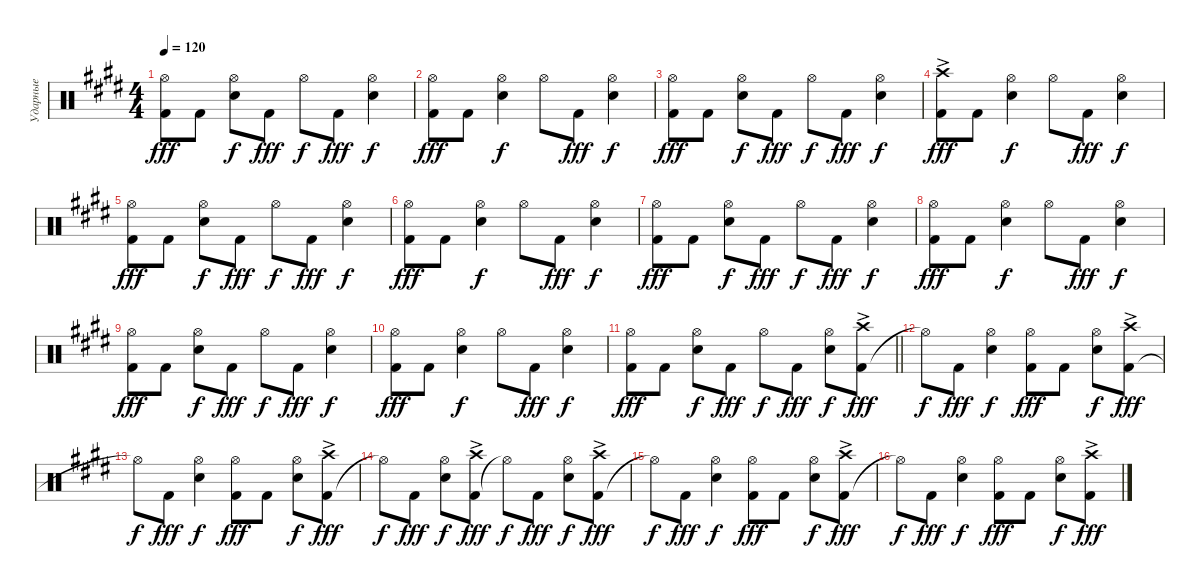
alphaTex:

\track ("Ударные" "Ударные") {instrument percussion}
\staff {score}
\articulation defaults
\ts (4 4)
\tempo 120
\clef neutral
\ks e
("Kick (hit) 2" "Hi-Hat (open)").8{dy fff} "Kick (hit) 2".8 ("Snare (hit) 2" "Hi-Hat (open)").8{dy f} "Kick (hit) 2".8{dy fff} "Hi-Hat (open)".8{dy f} "Kick (hit) 2".8{dy fff} ("Snare (hit) 2" "Hi-Hat (open)").4{dy f} |
("Kick (hit) 2" "Hi-Hat (open)").8{dy fff} "Kick (hit) 2".8 ("Snare (hit) 2" "Hi-Hat (open)").4{dy f} "Hi-Hat (open)".8 "Kick (hit) 2".8{dy fff} ("Snare (hit) 2" "Hi-Hat (open)").4{dy f} |
("Kick (hit) 2" "Hi-Hat (open)").8{dy fff} "Kick (hit) 2".8 ("Snare (hit) 2" "Hi-Hat (open)").8{dy f} "Kick (hit) 2".8{dy fff} "Hi-Hat (open)".8{dy f} "Kick (hit) 2".8{dy fff} ("Snare (hit) 2" "Hi-Hat (open)").4{dy f} |
("Kick (hit) 2" "Crash high (hit)"{ac}).8{dy fff} "Kick (hit) 2".8 ("Snare (hit) 2" "Hi-Hat (open)").4{dy f} "Hi-Hat (open)".8 "Kick (hit) 2".8{dy fff} ("Snare (hit) 2" "Hi-Hat (open)").4{dy f} |
("Kick (hit) 2" "Hi-Hat (open)").8{dy fff} "Kick (hit) 2".8 ("Snare (hit) 2" "Hi-Hat (open)").8{dy f} "Kick (hit) 2".8{dy fff} "Hi-Hat (open)".8{dy f} "Kick (hit) 2".8{dy fff} ("Snare (hit) 2" "Hi-Hat (open)").4{dy f} |
("Kick (hit) 2" "Hi-Hat (open)").8{dy fff} "Kick (hit) 2".8 ("Snare (hit) 2" "Hi-Hat (open)").4{dy f} "Hi-Hat (open)".8 "Kick (hit) 2".8{dy fff} ("Snare (hit) 2" "Hi-Hat (open)").4{dy f} |
("Kick (hit) 2" "Hi-Hat (open)").8{dy fff} "Kick (hit) 2".8 ("Snare (hit) 2" "Hi-Hat (open)").8{dy f} "Kick (hit) 2".8{dy fff} "Hi-Hat (open)".8{dy f} "Kick (hit) 2".8{dy fff} ("Snare (hit) 2" "Hi-Hat (open)").4{dy f} |
("Kick (hit) 2" "Hi-Hat (open)").8{dy fff} "Kick (hit) 2".8 ("Snare (hit) 2" "Hi-Hat (open)").4{dy f} "Hi-Hat (open)".8 "Kick (hit) 2".8{dy fff} ("Snare (hit) 2" "Hi-Hat (open)").4{dy f} |
("Kick (hit) 2" "Hi-Hat (open)").8{dy fff} "Kick (hit) 2".8 ("Snare (hit) 2" "Hi-Hat (open)").8{dy f} "Kick (hit) 2".8{dy fff} "Hi-Hat (open)".8{dy f} "Kick (hit) 2".8{dy fff} ("Snare (hit) 2" "Hi-Hat (open)").4{dy f} |
("Kick (hit) 2" "Hi-Hat (open)").8{dy fff} "Kick (hit) 2".8 ("Snare (hit) 2" "Hi-Hat (open)").4{dy f} "Hi-Hat (open)".8 "Kick (hit) 2".8{dy fff} ("Snare (hit) 2" "Hi-Hat (open)").4{dy f} |
\barLineRight lightlight
("Kick (hit) 2" "Hi-Hat (open)").8{dy fff} "Kick (hit) 2".8 ("Snare (hit) 2" "Hi-Hat (open)").8{dy f} "Kick (hit) 2".8{dy fff} "Hi-Hat (open)".8{dy f} "Kick (hit) 2".8{dy fff} ("Snare (hit) 2" "Hi-Hat (open)").8{dy f} ("Kick (hit) 2" "Crash high (hit)"{ac}).8{dy fff} |
"Hi-Hat (open)"{t}.8{dy f} "Kick (hit) 2".8{dy fff} ("Snare (hit) 2" "Hi-Hat (open)").4{dy f} ("Kick (hit) 2" "Hi-Hat (open)").8{dy fff} "Kick (hit) 2".8 ("Snare (hit) 2" "Hi-Hat (open)").8{dy f} ("Kick (hit) 2" "Crash high (hit)"{ac}).8{dy fff} |
"Hi-Hat (open)"{t}.8{dy f} "Kick (hit) 2".8{dy fff} ("Snare (hit) 2" "Hi-Hat (open)").4{dy f} ("Kick (hit) 2" "Hi-Hat (open)").8{dy fff} "Kick (hit) 2".8 ("Snare (hit) 2" "Hi-Hat (open)").8{dy f} ("Kick (hit) 2" "Crash high (hit)"{ac}).8{dy fff} |
"Hi-Hat (open)"{t}.8{dy f} "Kick (hit) 2".8{dy fff} ("Snare (hit) 2" "Hi-Hat (open)").8{dy f} ("Kick (hit) 2" "Crash high (hit)"{ac}).8{dy fff} "Hi-Hat (open)"{t}.8{dy f} "Kick (hit) 2".8{dy fff} ("Snare (hit) 2" "Hi-Hat (open)").8{dy f} ("Kick (hit) 2" "Crash high (hit)"{ac}).8{dy fff} |
"Hi-Hat (open)"{t}.8{dy f} "Kick (hit) 2".8{dy fff} ("Snare (hit) 2" "Hi-Hat (open)").4{dy f} ("Kick (hit) 2" "Hi-Hat (open)").8{dy fff} "Kick (hit) 2".8 ("Snare (hit) 2" "Hi-Hat (open)").8{dy f} ("Kick (hit) 2" "Crash high (hit)"{ac}).8{dy fff} |
"Hi-Hat (open)"{t}.8{dy f} "Kick (hit) 2".8{dy fff} ("Snare (hit) 2" "Hi-Hat (open)").4{dy f} ("Kick (hit) 2" "Hi-Hat (open)").8{dy fff} "Kick (hit) 2".8 ("Snare (hit) 2" "Hi-Hat (open)").8{dy f} ("Kick (hit) 2" "Crash high (hit)"{ac}).8{dy fff}
